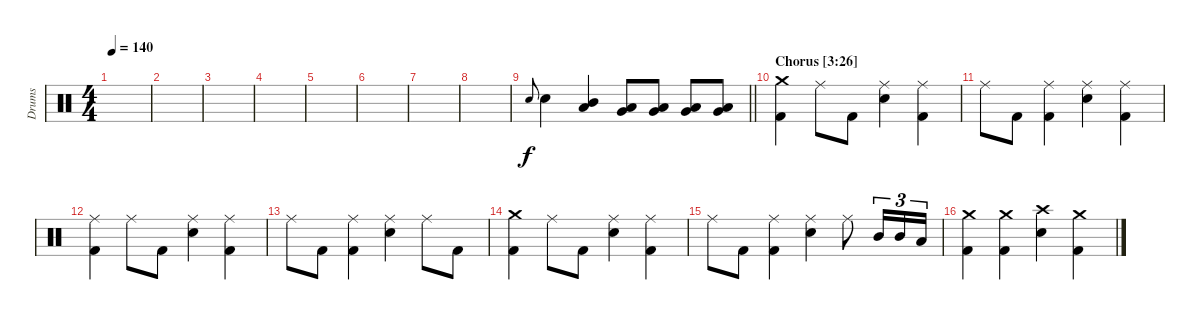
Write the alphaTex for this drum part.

\track ("Drums" "Drums") {instrument percussion}
\staff {score}
\articulation defaults
\ts (4 4)
\tempo 140
\clef neutral
\ks aminor
|
|
|
|
|
|
|
|
\barLineRight lightlight "Snare (hit) 2".8{gr onbeat} "Snare (hit) 2".4
("Mid Tom (hit)" "Low Tom (hit)").4 ("Low Tom (hit)" "Very Low Tom (hit)").8 ("Low Tom (hit)" "Very Low Tom (hit)").8 ("Very Low Tom (hit)" "Low Floor Tom (hit)").8 ("Very Low Tom (hit)" "Low Floor Tom (hit)").8 |
\section ("" "Chorus [3:26]")
("Crash medium (hit)" "Kick (hit) 2").4 "Ride (middle)".8 "Kick (hit) 2".8 ("Ride (middle)" "Snare (hit) 2").4 ("Ride (middle)" "Kick (hit) 2").4 |
"Ride (middle)".8 "Kick (hit) 2".8 ("Ride (middle)" "Kick (hit) 2").4 ("Ride (middle)" "Snare (hit) 2").4 ("Ride (middle)" "Kick (hit) 2").4 |
("Ride (middle)" "Kick (hit) 2").4 "Ride (middle)".8 "Kick (hit) 2".8 ("Ride (middle)" "Snare (hit) 2").4 ("Ride (middle)" "Kick (hit) 2").4 |
"Ride (middle)".8 "Kick (hit) 2".8 ("Ride (middle)" "Kick (hit) 2").4 ("Ride (middle)" "Snare (hit) 2").4 "Ride (middle)".8 "Kick (hit) 2".8 |
("Crash medium (hit)" "Kick (hit) 2").4 "Ride (middle)".8 "Kick (hit) 2".8 ("Ride (middle)" "Snare (hit) 2").4 ("Ride (middle)" "Kick (hit) 2").4 |
"Ride (middle)".8 "Kick (hit) 2".8 ("Ride (middle)" "Kick (hit) 2").4 ("Ride (middle)" "Snare (hit) 2").4 "Ride (middle)".8 "Mid Tom (hit)".16{tu (3 2)} "Mid Tom (hit)".16{tu (3 2)} "Low Tom (hit)".16{tu (3 2)} |
("Crash medium (hit)" "Kick (hit) 2").4 ("Crash medium (hit)" "Kick (hit) 2").4 ("Crash high (hit)" "Snare (hit) 2").4 ("Crash medium (hit)" "Kick (hit) 2").4
